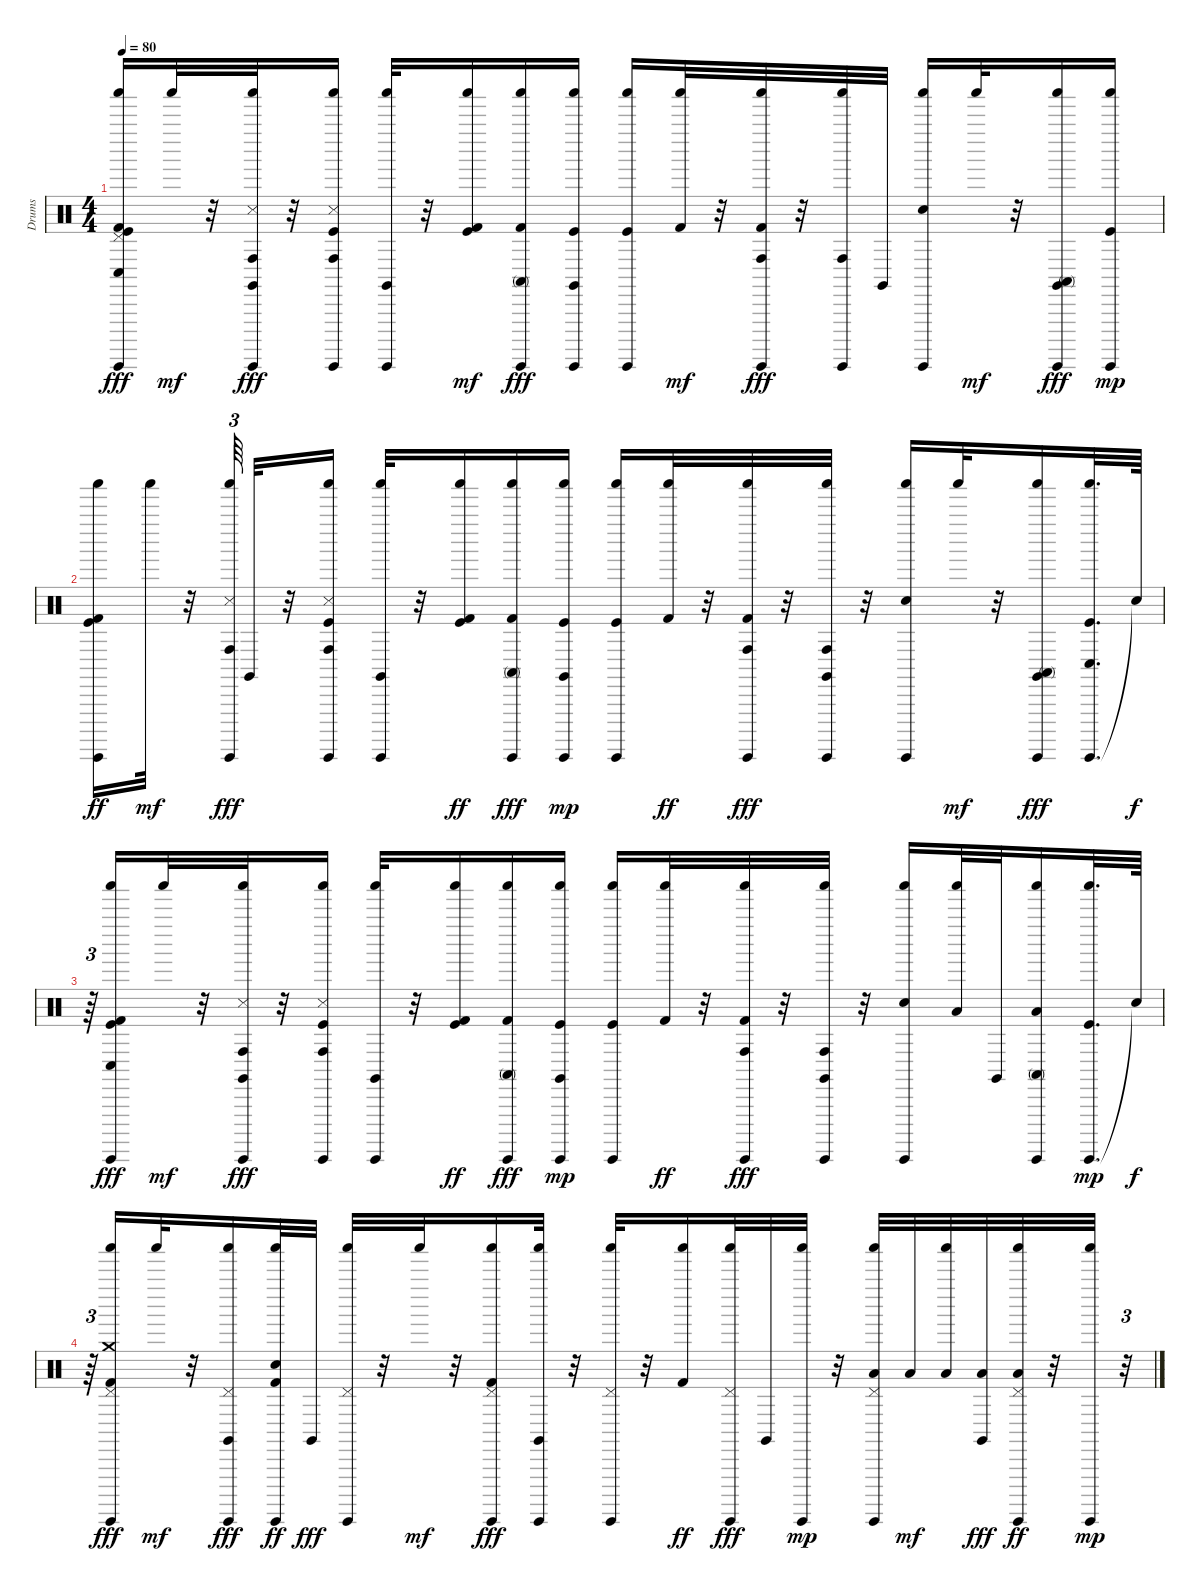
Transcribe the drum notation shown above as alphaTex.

\track ("Drums" "Drums") {instrument percussion}
\staff {score}
\articulation defaults
\ts (4 4)
\tempo 80
\clef neutral
\ks c
("Kick (hit)" "Guiro (hit)" "Kick (hit) 2" "Shaker (hit)" "Pedal Hi-Hat (hit)" "Conga low (hit)").16{dy fff} "Shaker (hit)".32{dy mf} r.32 ("Guiro (hit)" "Snare (side stick) 3" "Shaker (hit)" "Conga high (hit)" "Claves (hit)").32{dy fff} r.32 ("Kick (hit)" "Guiro (hit)" "Shaker (hit)" "Snare (side stick) 3" "Conga high (hit)").16 ("Guiro (hit)" "Shaker (hit)" "Claves (hit)").32 r.32 ("Kick (hit)" "Kick (hit) 2" "Shaker (hit)").16{dy mf} ("Guiro (hit)" "Kick (hit) 2" "Shaker (hit)" "Conga high (mute)").16{dy fff} ("Kick (hit)" "Guiro (hit)" "Shaker (hit)" "Claves (hit)").16 ("Kick (hit)" "Guiro (hit)" "Shaker (hit)").16 ("Kick (hit) 2" "Shaker (hit)").32{dy mf} r.32 ("Guiro (hit)" "Kick (hit) 2" "Shaker (hit)" "Conga high (hit)").32{dy fff} r.32 ("Guiro (hit)" "Shaker (hit)" "Conga high (hit)").32 "Claves (hit)".32 ("Guiro (hit)" "Electric Snare (hit)" "Shaker (hit)").16 "Shaker (hit)".32{dy mf} r.32 ("Guiro (hit)" "Shaker (hit)" "Conga high (mute)" "Claves (hit)").16{dy fff} ("Kick (hit)" "Guiro (hit)" "Shaker (hit)").16{dy mp} |
("Guiro (hit)" "Shaker (hit)" "Kick (hit)" "Kick (hit) 2").16{dy ff} "Shaker (hit)".32{dy mf} r.32 ("Guiro (hit)" "Shaker (hit)" "Snare (side stick) 3" "Conga high (hit)").64{tu (3 2) dy fff} "Claves (hit)".32 r.32 ("Guiro (hit)" "Shaker (hit)" "Kick (hit)" "Snare (side stick) 3" "Conga high (hit)").16 ("Guiro (hit)" "Shaker (hit)" "Claves (hit)").32 r.32 ("Shaker (hit)" "Kick (hit)" "Kick (hit) 2").16{dy ff} ("Guiro (hit)" "Shaker (hit)" "Kick (hit) 2" "Conga high (mute)").16{dy fff} ("Claves (hit)" "Guiro (hit)" "Shaker (hit)" "Kick (hit)").16{dy mp} ("Guiro (hit)" "Shaker (hit)" "Kick (hit)").16 ("Shaker (hit)" "Kick (hit) 2").32{dy ff} r.32 ("Guiro (hit)" "Shaker (hit)" "Kick (hit) 2" "Conga high (hit)").32{dy fff} r.32 ("Guiro (hit)" "Shaker (hit)" "Conga high (hit)" "Claves (hit)").32 r.32 ("Guiro (hit)" "Electric Snare (hit)" "Shaker (hit)").16 "Shaker (hit)".32{dy mf} r.32 ("Guiro (hit)" "Shaker (hit)" "Conga high (mute)" "Claves (hit)").16{dy fff} ("Guiro (hit)" "Shaker (hit)" "Kick (hit)" "Conga low (hit)").32{d} "Snare (hit)"{t}.64{dy f} |
r.64{tu (3 2)} ("Guiro (hit)" "Shaker (hit)" "Kick (hit)" "Kick (hit) 2" "Conga low (hit)").16{dy fff} "Shaker (hit)".32{dy mf} r.32 ("Guiro (hit)" "Shaker (hit)" "Snare (side stick) 3" "Conga high (hit)" "Claves (hit)").32{dy fff} r.32 ("Guiro (hit)" "Shaker (hit)" "Kick (hit)" "Snare (side stick) 3" "Conga high (hit)").16 ("Guiro (hit)" "Shaker (hit)" "Claves (hit)").32 r.32 ("Shaker (hit)" "Kick (hit)" "Kick (hit) 2").16{dy ff} ("Guiro (hit)" "Shaker (hit)" "Kick (hit) 2" "Conga high (mute)").16{dy fff} ("Claves (hit)" "Guiro (hit)" "Shaker (hit)" "Kick (hit)").16{dy mp} ("Guiro (hit)" "Shaker (hit)" "Kick (hit)").16 ("Shaker (hit)" "Kick (hit) 2").32{dy ff} r.32 ("Guiro (hit)" "Shaker (hit)" "Kick (hit) 2" "Conga high (hit)").32{dy fff} r.32 ("Guiro (hit)" "Shaker (hit)" "Conga high (hit)" "Claves (hit)").32 r.32 ("Guiro (hit)" "Electric Snare (hit)" "Shaker (hit)").16 ("Shaker (hit)" "Low Tom (hit)").32 "Claves (hit)".32 ("Guiro (hit)" "Shaker (hit)" "Conga high (mute)" "Low Floor Tom (hit)").16 ("Guiro (hit)" "Shaker (hit)" "Kick (hit)").32{d dy mp} "Snare (hit)"{t}.64{dy f} |
r.64{tu (3 2)} ("Guiro (hit)" "Shaker (hit)" "Kick (hit) 2" "Pedal Hi-Hat (hit)" "Crash medium (hit)").16{dy fff} "Shaker (hit)".32{dy mf} r.32 ("Guiro (hit)" "Shaker (hit)" "Pedal Hi-Hat (hit)" "Claves (hit)").16{dy fff} ("Guiro (hit)" "Shaker (hit)" "Electric Snare (hit)" "Kick (hit) 2").32{dy ff} "Claves (hit)".32{dy fff} ("Guiro (hit)" "Shaker (hit)" "Pedal Hi-Hat (hit)").32 r.32 "Shaker (hit)".32{dy mf} r.32 ("Guiro (hit)" "Shaker (hit)" "Kick (hit) 2" "Pedal Hi-Hat (hit)").16{dy fff} ("Guiro (hit)" "Shaker (hit)" "Claves (hit)").32 r.32 ("Guiro (hit)" "Shaker (hit)" "Pedal Hi-Hat (hit)").32 r.32 ("Shaker (hit)" "Kick (hit) 2").16{dy ff} ("Guiro (hit)" "Shaker (hit)" "Pedal Hi-Hat (hit)").32{dy fff} "Claves (hit)".32 ("Guiro (hit)" "Shaker (hit)").32{dy mp} r.32 ("Guiro (hit)" "Shaker (hit)" "Pedal Hi-Hat (hit)" "Low Floor Tom (hit)").32 "Low Floor Tom (hit)".32{dy mf} ("Shaker (hit)" "Low Floor Tom (hit)").32 ("Low Floor Tom (hit)" "Claves (hit)").32{dy fff} ("Guiro (hit)" "Shaker (hit)" "Pedal Hi-Hat (hit)" "Low Floor Tom (hit)").32{dy ff} r.32 ("Guiro (hit)" "Shaker (hit)").32{dy mp} r.32{tu (3 2)}
